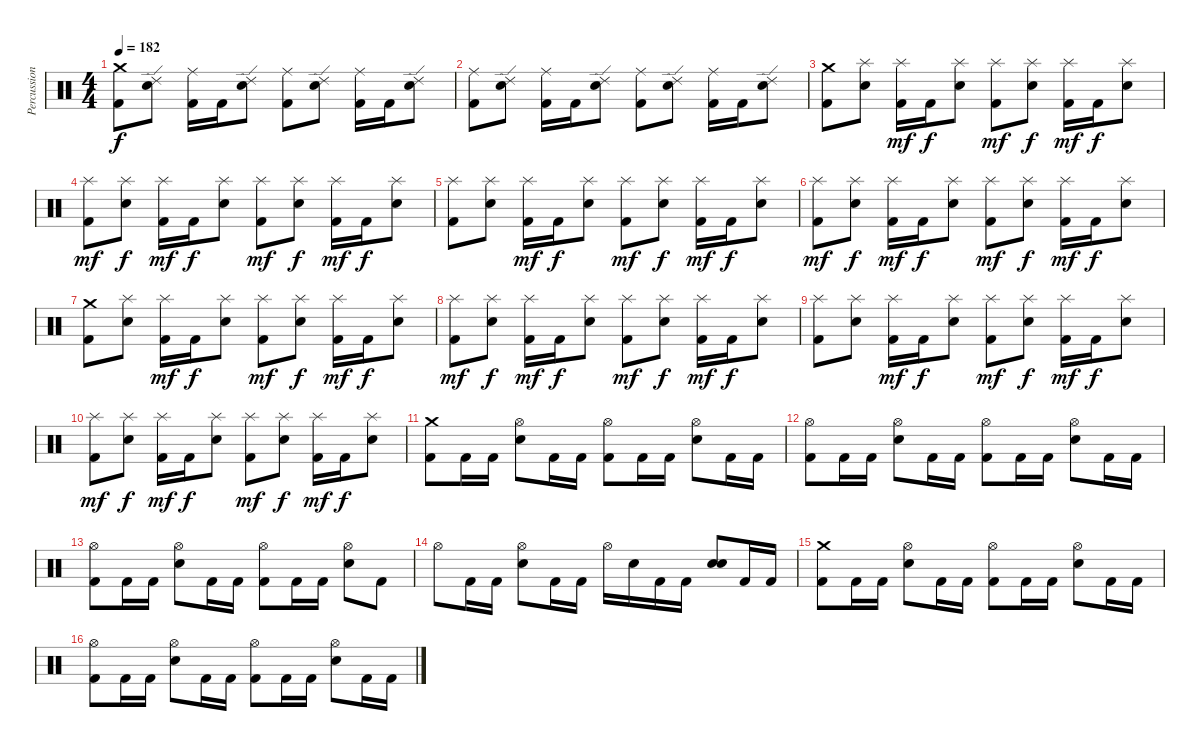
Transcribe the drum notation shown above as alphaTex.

\track ("Percussion" "Percussion") {instrument percussion}
\staff {score}
\articulation defaults
\ts (4 4)
\tempo 182
\clef neutral
\ks c
("Crash medium (hit)" "Kick (hit) 2").8{dy f} ("Ride (edge) 2" "Electric Snare (hit)").8 ("Ride (middle)" "Kick (hit) 2").16 "Kick (hit) 2".16 ("Ride (edge) 2" "Electric Snare (hit)").8 ("Ride (middle)" "Kick (hit) 2").8 ("Ride (edge) 2" "Electric Snare (hit)").8 ("Ride (middle)" "Kick (hit) 2").16 "Kick (hit) 2".16 ("Ride (edge) 2" "Electric Snare (hit)").8 |
("Ride (middle)" "Kick (hit) 2").8 ("Ride (edge) 2" "Electric Snare (hit)").8 ("Ride (middle)" "Kick (hit) 2").16 "Kick (hit) 2".16 ("Ride (edge) 2" "Electric Snare (hit)").8 ("Ride (middle)" "Kick (hit) 2").8 ("Ride (edge) 2" "Electric Snare (hit)").8 ("Ride (middle)" "Kick (hit) 2").16 "Kick (hit) 2".16 ("Ride (edge) 2" "Electric Snare (hit)").8 |
("Crash medium (hit)" "Kick (hit) 2").8 ("Splash (hit)" "Electric Snare (hit)").8 ("Splash (hit)" "Kick (hit) 2").16{dy mf} "Kick (hit) 2".16{dy f} ("Splash (hit)" "Electric Snare (hit)").8 ("Splash (hit)" "Kick (hit) 2").8{dy mf} ("Splash (hit)" "Electric Snare (hit)").8{dy f} ("Splash (hit)" "Kick (hit) 2").16{dy mf} "Kick (hit) 2".16{dy f} ("Splash (hit)" "Electric Snare (hit)").8 |
("Splash (hit)" "Kick (hit) 2").8{dy mf} ("Splash (hit)" "Electric Snare (hit)").8{dy f} ("Splash (hit)" "Kick (hit) 2").16{dy mf} "Kick (hit) 2".16{dy f} ("Splash (hit)" "Electric Snare (hit)").8 ("Splash (hit)" "Kick (hit) 2").8{dy mf} ("Splash (hit)" "Electric Snare (hit)").8{dy f} ("Splash (hit)" "Kick (hit) 2").16{dy mf} "Kick (hit) 2".16{dy f} ("Splash (hit)" "Electric Snare (hit)").8 |
("Splash (hit)" "Kick (hit) 2").8 ("Splash (hit)" "Electric Snare (hit)").8 ("Splash (hit)" "Kick (hit) 2").16{dy mf} "Kick (hit) 2".16{dy f} ("Splash (hit)" "Electric Snare (hit)").8 ("Splash (hit)" "Kick (hit) 2").8{dy mf} ("Splash (hit)" "Electric Snare (hit)").8{dy f} ("Splash (hit)" "Kick (hit) 2").16{dy mf} "Kick (hit) 2".16{dy f} ("Splash (hit)" "Electric Snare (hit)").8 |
("Splash (hit)" "Kick (hit) 2").8{dy mf} ("Splash (hit)" "Electric Snare (hit)").8{dy f} ("Splash (hit)" "Kick (hit) 2").16{dy mf} "Kick (hit) 2".16{dy f} ("Splash (hit)" "Electric Snare (hit)").8 ("Splash (hit)" "Kick (hit) 2").8{dy mf} ("Splash (hit)" "Electric Snare (hit)").8{dy f} ("Splash (hit)" "Kick (hit) 2").16{dy mf} "Kick (hit) 2".16{dy f} ("Splash (hit)" "Electric Snare (hit)").8 |
("Crash medium (hit)" "Kick (hit) 2").8 ("Splash (hit)" "Electric Snare (hit)").8 ("Splash (hit)" "Kick (hit) 2").16{dy mf} "Kick (hit) 2".16{dy f} ("Splash (hit)" "Electric Snare (hit)").8 ("Splash (hit)" "Kick (hit) 2").8{dy mf} ("Splash (hit)" "Electric Snare (hit)").8{dy f} ("Splash (hit)" "Kick (hit) 2").16{dy mf} "Kick (hit) 2".16{dy f} ("Splash (hit)" "Electric Snare (hit)").8 |
("Splash (hit)" "Kick (hit) 2").8{dy mf} ("Splash (hit)" "Electric Snare (hit)").8{dy f} ("Splash (hit)" "Kick (hit) 2").16{dy mf} "Kick (hit) 2".16{dy f} ("Splash (hit)" "Electric Snare (hit)").8 ("Splash (hit)" "Kick (hit) 2").8{dy mf} ("Splash (hit)" "Electric Snare (hit)").8{dy f} ("Splash (hit)" "Kick (hit) 2").16{dy mf} "Kick (hit) 2".16{dy f} ("Splash (hit)" "Electric Snare (hit)").8 |
("Splash (hit)" "Kick (hit) 2").8 ("Splash (hit)" "Electric Snare (hit)").8 ("Splash (hit)" "Kick (hit) 2").16{dy mf} "Kick (hit) 2".16{dy f} ("Splash (hit)" "Electric Snare (hit)").8 ("Splash (hit)" "Kick (hit) 2").8{dy mf} ("Splash (hit)" "Electric Snare (hit)").8{dy f} ("Splash (hit)" "Kick (hit) 2").16{dy mf} "Kick (hit) 2".16{dy f} ("Splash (hit)" "Electric Snare (hit)").8 |
("Splash (hit)" "Kick (hit) 2").8{dy mf} ("Splash (hit)" "Electric Snare (hit)").8{dy f} ("Splash (hit)" "Kick (hit) 2").16{dy mf} "Kick (hit) 2".16{dy f} ("Splash (hit)" "Electric Snare (hit)").8 ("Splash (hit)" "Kick (hit) 2").8{dy mf} ("Splash (hit)" "Electric Snare (hit)").8{dy f} ("Splash (hit)" "Kick (hit) 2").16{dy mf} "Kick (hit) 2".16{dy f} ("Splash (hit)" "Electric Snare (hit)").8 |
("Crash medium (hit)" "Kick (hit) 2").8 "Kick (hit) 2".16 "Kick (hit) 2".16 ("Hi-Hat (open)" "Electric Snare (hit)").8 "Kick (hit) 2".16 "Kick (hit) 2".16 ("Hi-Hat (open)" "Kick (hit) 2").8 "Kick (hit) 2".16 "Kick (hit) 2".16 ("Hi-Hat (open)" "Electric Snare (hit)").8 "Kick (hit) 2".16 "Kick (hit) 2".16 |
("Hi-Hat (open)" "Kick (hit) 2").8 "Kick (hit) 2".16 "Kick (hit) 2".16 ("Hi-Hat (open)" "Electric Snare (hit)").8 "Kick (hit) 2".16 "Kick (hit) 2".16 ("Hi-Hat (open)" "Kick (hit) 2").8 "Kick (hit) 2".16 "Kick (hit) 2".16 ("Hi-Hat (open)" "Electric Snare (hit)").8 "Kick (hit) 2".16 "Kick (hit) 2".16 |
("Hi-Hat (open)" "Kick (hit) 2").8 "Kick (hit) 2".16 "Kick (hit) 2".16 ("Hi-Hat (open)" "Electric Snare (hit)").8 "Kick (hit) 2".16 "Kick (hit) 2".16 ("Hi-Hat (open)" "Kick (hit) 2").8 "Kick (hit) 2".16 "Kick (hit) 2".16 ("Hi-Hat (open)" "Electric Snare (hit)").8 "Kick (hit) 2".8 |
"Hi-Hat (open)".8 "Kick (hit) 2".16 "Kick (hit) 2".16 ("Hi-Hat (open)" "Electric Snare (hit)").8 "Kick (hit) 2".16 "Kick (hit) 2".16 "Hi-Hat (open)".16 "Electric Snare (hit)".16 "Kick (hit) 2".16 "Kick (hit) 2".16 ("Electric Snare (hit)" "Electric Snare (hit)").8 "Kick (hit) 2".16 "Kick (hit) 2".16 |
("Crash medium (hit)" "Kick (hit) 2").8 "Kick (hit) 2".16 "Kick (hit) 2".16 ("Hi-Hat (open)" "Electric Snare (hit)").8 "Kick (hit) 2".16 "Kick (hit) 2".16 ("Hi-Hat (open)" "Kick (hit) 2").8 "Kick (hit) 2".16 "Kick (hit) 2".16 ("Hi-Hat (open)" "Electric Snare (hit)").8 "Kick (hit) 2".16 "Kick (hit) 2".16 |
("Hi-Hat (open)" "Kick (hit) 2").8 "Kick (hit) 2".16 "Kick (hit) 2".16 ("Hi-Hat (open)" "Electric Snare (hit)").8 "Kick (hit) 2".16 "Kick (hit) 2".16 ("Hi-Hat (open)" "Kick (hit) 2").8 "Kick (hit) 2".16 "Kick (hit) 2".16 ("Hi-Hat (open)" "Electric Snare (hit)").8 "Kick (hit) 2".16 "Kick (hit) 2".16
